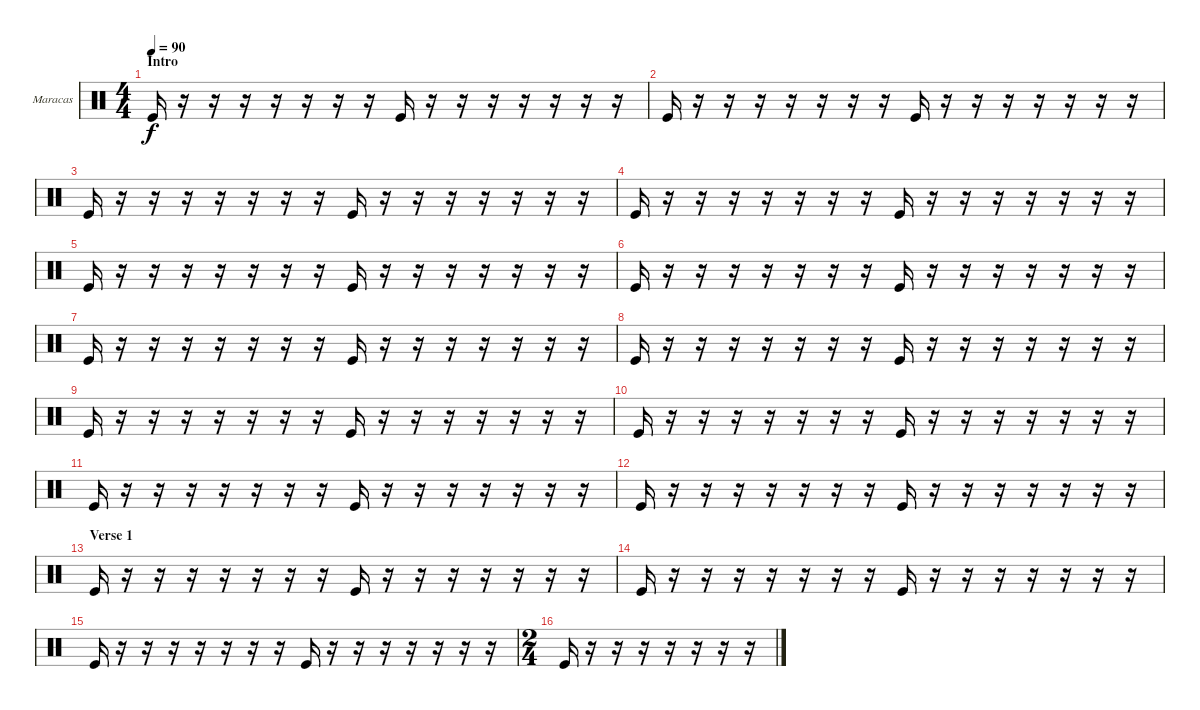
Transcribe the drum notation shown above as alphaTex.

\bracketExtendMode groupsimilarinstruments
\firstSystemTrackNameOrientation horizontal
\otherSystemsTrackNameOrientation horizontal
\track ("Maracas" "Maracas") {multiBarRest instrument percussion}
\staff {score}
\articulation defaults
\ts (4 4)
\beaming (8 2 2 2 2)
\section ("" "Intro")
\tempo 90
\clef neutral
\ks c "Kick (hit)".16{dy f}
r.16 r.16 r.16 r.16 r.16 r.16 r.16 "Kick (hit)".16 r.16 r.16 r.16 r.16 r.16 r.16 r.16 |
"Kick (hit)".16 r.16 r.16 r.16 r.16 r.16 r.16 r.16 "Kick (hit)".16 r.16 r.16 r.16 r.16 r.16 r.16 r.16 |
"Kick (hit)".16 r.16 r.16 r.16 r.16 r.16 r.16 r.16 "Kick (hit)".16 r.16 r.16 r.16 r.16 r.16 r.16 r.16 |
"Kick (hit)".16 r.16 r.16 r.16 r.16 r.16 r.16 r.16 "Kick (hit)".16 r.16 r.16 r.16 r.16 r.16 r.16 r.16 |
"Kick (hit)".16 r.16 r.16 r.16 r.16 r.16 r.16 r.16 "Kick (hit)".16 r.16 r.16 r.16 r.16 r.16 r.16 r.16 |
"Kick (hit)".16 r.16 r.16 r.16 r.16 r.16 r.16 r.16 "Kick (hit)".16 r.16 r.16 r.16 r.16 r.16 r.16 r.16 |
"Kick (hit)".16 r.16 r.16 r.16 r.16 r.16 r.16 r.16 "Kick (hit)".16 r.16 r.16 r.16 r.16 r.16 r.16 r.16 |
"Kick (hit)".16 r.16 r.16 r.16 r.16 r.16 r.16 r.16 "Kick (hit)".16 r.16 r.16 r.16 r.16 r.16 r.16 r.16 |
"Kick (hit)".16 r.16 r.16 r.16 r.16 r.16 r.16 r.16 "Kick (hit)".16 r.16 r.16 r.16 r.16 r.16 r.16 r.16 |
"Kick (hit)".16 r.16 r.16 r.16 r.16 r.16 r.16 r.16 "Kick (hit)".16 r.16 r.16 r.16 r.16 r.16 r.16 r.16 |
"Kick (hit)".16 r.16 r.16 r.16 r.16 r.16 r.16 r.16 "Kick (hit)".16 r.16 r.16 r.16 r.16 r.16 r.16 r.16 |
"Kick (hit)".16 r.16 r.16 r.16 r.16 r.16 r.16 r.16 "Kick (hit)".16 r.16 r.16 r.16 r.16 r.16 r.16 r.16 |
\section ("" "Verse 1")
"Kick (hit)".16 r.16 r.16 r.16 r.16 r.16 r.16 r.16 "Kick (hit)".16 r.16 r.16 r.16 r.16 r.16 r.16 r.16 |
"Kick (hit)".16 r.16 r.16 r.16 r.16 r.16 r.16 r.16 "Kick (hit)".16 r.16 r.16 r.16 r.16 r.16 r.16 r.16 |
"Kick (hit)".16 r.16 r.16 r.16 r.16 r.16 r.16 r.16 "Kick (hit)".16 r.16 r.16 r.16 r.16 r.16 r.16 r.16 |
\ts (2 4)
\beaming (8 2 2)
"Kick (hit)".16 r.16 r.16 r.16 r.16 r.16 r.16 r.16
